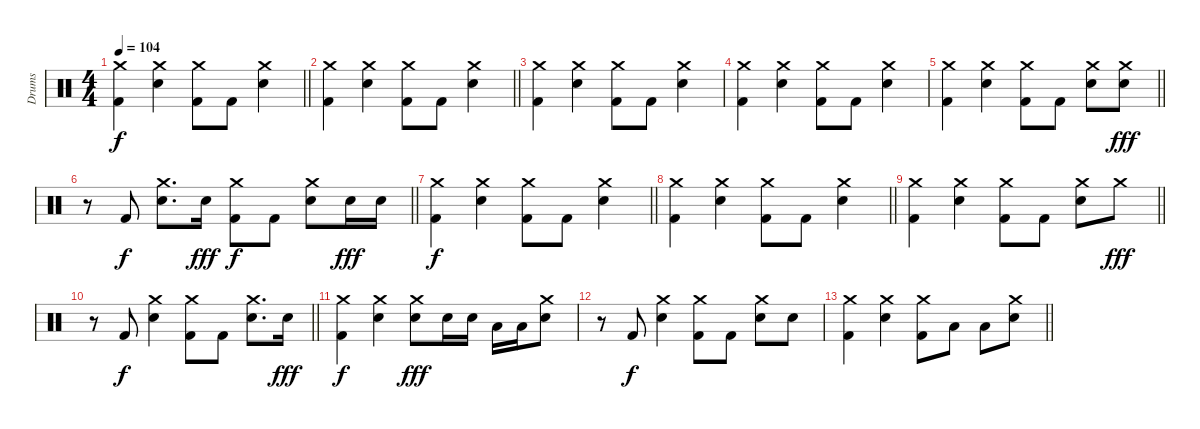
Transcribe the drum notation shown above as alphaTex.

\track ("Drums" "Drums") {instrument percussion}
\staff {score}
\articulation defaults
\ts (4 4)
\tempo 104
\clef neutral
\barLineRight lightlight
\ks c
("Kick (hit) 2" "Crash medium (hit)").4{dy f} ("Electric Snare (hit)" "Crash medium (hit)").4 ("Kick (hit) 2" "Crash medium (hit)").8 "Kick (hit) 2".8 ("Electric Snare (hit)" "Crash medium (hit)").4 |
\barLineRight lightlight
("Kick (hit) 2" "Crash medium (hit)").4 ("Electric Snare (hit)" "Crash medium (hit)").4 ("Kick (hit) 2" "Crash medium (hit)").8 "Kick (hit) 2".8 ("Electric Snare (hit)" "Crash medium (hit)").4 |
("Kick (hit) 2" "Crash medium (hit)").4 ("Electric Snare (hit)" "Crash medium (hit)").4 ("Kick (hit) 2" "Crash medium (hit)").8 "Kick (hit) 2".8 ("Electric Snare (hit)" "Crash medium (hit)").4 |
("Kick (hit) 2" "Crash medium (hit)").4 ("Electric Snare (hit)" "Crash medium (hit)").4 ("Kick (hit) 2" "Crash medium (hit)").8 "Kick (hit) 2".8 ("Electric Snare (hit)" "Crash medium (hit)").4 |
\barLineRight lightlight
("Kick (hit) 2" "Crash medium (hit)").4 ("Electric Snare (hit)" "Crash medium (hit)").4 ("Kick (hit) 2" "Crash medium (hit)").8 "Kick (hit) 2".8 ("Electric Snare (hit)" "Crash medium (hit)").8 ("Electric Snare (hit)" "Crash medium (hit)").8{dy fff} |
\barLineRight lightlight
r.8 "Kick (hit) 2".8{dy f} ("Electric Snare (hit)" "Crash medium (hit)").8{d} "Electric Snare (hit)".16{dy fff} ("Kick (hit) 2" "Crash medium (hit)").8{dy f} "Kick (hit) 2".8 ("Electric Snare (hit)" "Crash medium (hit)").8 "Electric Snare (hit)".16{dy fff} "Electric Snare (hit)".16 |
\barLineRight lightlight
("Kick (hit) 2" "Crash medium (hit)").4{dy f} ("Electric Snare (hit)" "Crash medium (hit)").4 ("Kick (hit) 2" "Crash medium (hit)").8 "Kick (hit) 2".8 ("Electric Snare (hit)" "Crash medium (hit)").4 |
\barLineRight lightlight
("Kick (hit) 2" "Crash medium (hit)").4 ("Electric Snare (hit)" "Crash medium (hit)").4 ("Kick (hit) 2" "Crash medium (hit)").8 "Kick (hit) 2".8 ("Electric Snare (hit)" "Crash medium (hit)").4 |
\barLineRight lightlight
("Kick (hit) 2" "Crash medium (hit)").4 ("Electric Snare (hit)" "Crash medium (hit)").4 ("Kick (hit) 2" "Crash medium (hit)").8 "Kick (hit) 2".8 ("Electric Snare (hit)" "Crash medium (hit)").8 "Crash medium (hit)".8{dy fff} |
\barLineRight lightlight
r.8 "Kick (hit) 2".8{dy f} ("Electric Snare (hit)" "Crash medium (hit)").4 ("Kick (hit) 2" "Crash medium (hit)").8 "Kick (hit) 2".8 ("Electric Snare (hit)" "Crash medium (hit)").8{d} "Electric Snare (hit)".16{dy fff} |
("Kick (hit) 2" "Crash medium (hit)").4{dy f} ("Electric Snare (hit)" "Crash medium (hit)").4 ("Electric Snare (hit)" "Crash medium (hit)").8{dy fff} "Electric Snare (hit)".16 "Electric Snare (hit)".16 "Low Tom (hit)".16 "Low Tom (hit)".16 ("Electric Snare (hit)" "Crash medium (hit)").8 |
r.8 "Kick (hit) 2".8{dy f} ("Electric Snare (hit)" "Crash medium (hit)").4 ("Kick (hit) 2" "Crash medium (hit)").8 "Kick (hit) 2".8 ("Electric Snare (hit)" "Crash medium (hit)").8 "Electric Snare (hit)".8 |
\barLineRight lightlight
("Kick (hit) 2" "Crash medium (hit)").4 ("Electric Snare (hit)" "Crash medium (hit)").4 ("Kick (hit) 2" "Crash medium (hit)").8 "Low Tom (hit)".8 "Low Tom (hit)".8 ("Electric Snare (hit)" "Crash medium (hit)").8
